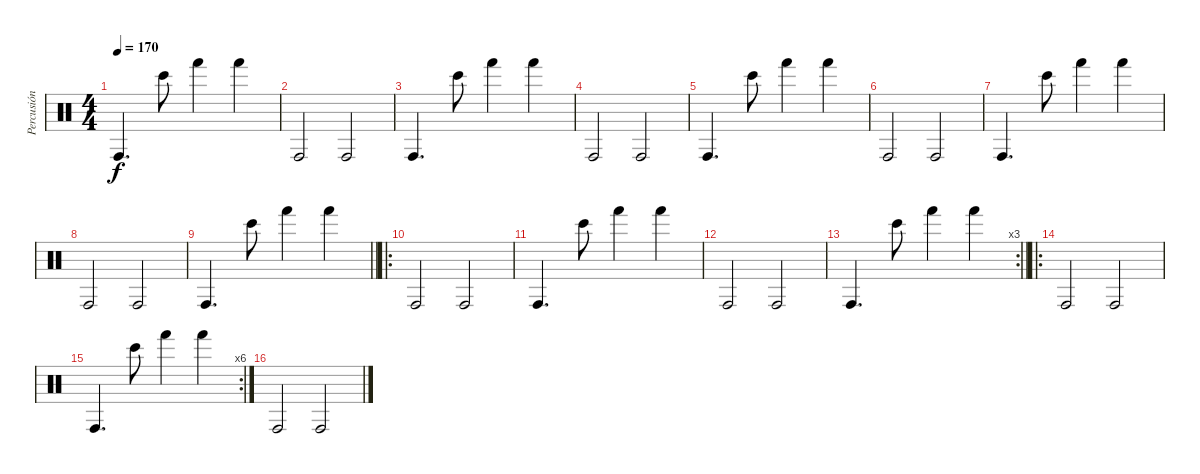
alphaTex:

\track ("Percusión" "Percusión") {instrument percussion}
\staff {score}
\articulation defaults
\ts (4 4)
\tempo 170
\clef neutral
\ks c "Conga high (hit)".4{d dy f} "Bongo High (hit)".8 "Hand (hit)".4 "Hand (hit)".4
|
"Conga high (hit)".2 "Conga high (hit)".2 |
"Conga high (hit)".4{d} "Bongo High (hit)".8 "Hand (hit)".4 "Hand (hit)".4 |
"Conga high (hit)".2 "Conga high (hit)".2 |
"Conga high (hit)".4{d} "Bongo High (hit)".8 "Hand (hit)".4 "Hand (hit)".4 |
"Conga high (hit)".2 "Conga high (hit)".2 |
"Conga high (hit)".4{d} "Bongo High (hit)".8 "Hand (hit)".4 "Hand (hit)".4 |
"Conga high (hit)".2 "Conga high (hit)".2 |
\barLineRight lightlight "Conga high (hit)".4{d} "Bongo High (hit)".8 "Hand (hit)".4 "Hand (hit)".4
|
\ro "Conga high (hit)".2 "Conga high (hit)".2
|
"Conga high (hit)".4{d} "Bongo High (hit)".8 "Hand (hit)".4 "Hand (hit)".4 |
"Conga high (hit)".2 "Conga high (hit)".2 |
\rc 3
\barLineRight lightlight "Conga high (hit)".4{d} "Bongo High (hit)".8 "Hand (hit)".4 "Hand (hit)".4
|
\ro "Conga high (hit)".2 "Conga high (hit)".2
|
\rc 6 "Conga high (hit)".4{d} "Bongo High (hit)".8 "Hand (hit)".4 "Hand (hit)".4
|
"Conga high (hit)".2 "Conga high (hit)".2
